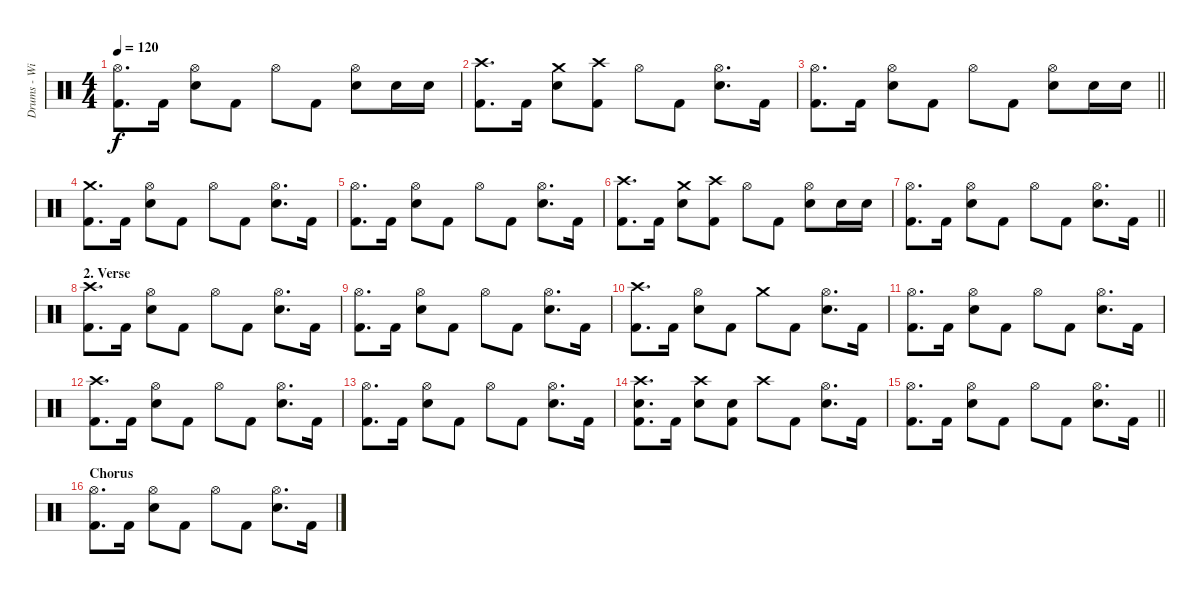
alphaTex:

\track ("Drums - Willi Wurm" "Drums - Wi") {instrument percussion}
\staff {score}
\articulation defaults
\ts (4 4)
\tempo 120
\clef neutral
\ks c
("Hi-Hat (open)" "Kick (hit) 2").8{d dy f} "Kick (hit) 2".16 ("Hi-Hat (open)" "Snare (hit) 2").8 "Kick (hit) 2".8 "Hi-Hat (open)".8 "Kick (hit) 2".8 ("Hi-Hat (open)" "Snare (hit) 2").8 "Snare (hit) 2".16 "Snare (hit) 2".16 |
("Crash high (hit)" "Kick (hit) 2").8{d} "Kick (hit) 2".16 ("Crash medium (hit)" "Snare (hit) 2").8 ("Crash high (hit)" "Kick (hit) 2").8 "Hi-Hat (open)".8 "Kick (hit) 2".8 ("Hi-Hat (open)" "Snare (hit) 2").8{d} "Kick (hit) 2".16 |
\barLineRight lightlight
("Hi-Hat (open)" "Kick (hit) 2").8{d} "Kick (hit) 2".16 ("Hi-Hat (open)" "Snare (hit) 2").8 "Kick (hit) 2".8 "Hi-Hat (open)".8 "Kick (hit) 2".8 ("Hi-Hat (open)" "Snare (hit) 2").8 "Snare (hit) 2".16 "Snare (hit) 2".16 |
("Crash medium (hit)" "Kick (hit) 2").8{d} "Kick (hit) 2".16 ("Hi-Hat (open)" "Snare (hit) 2").8 "Kick (hit) 2".8 "Hi-Hat (open)".8 "Kick (hit) 2".8 ("Hi-Hat (open)" "Snare (hit) 2").8{d} "Kick (hit) 2".16 |
("Hi-Hat (open)" "Kick (hit) 2").8{d} "Kick (hit) 2".16 ("Hi-Hat (open)" "Snare (hit) 2").8 "Kick (hit) 2".8 "Hi-Hat (open)".8 "Kick (hit) 2".8 ("Hi-Hat (open)" "Snare (hit) 2").8{d} "Kick (hit) 2".16 |
("Crash high (hit)" "Kick (hit) 2").8{d} "Kick (hit) 2".16 ("Crash medium (hit)" "Snare (hit) 2").8 ("Crash high (hit)" "Kick (hit) 2").8 "Hi-Hat (open)".8 "Kick (hit) 2".8 ("Hi-Hat (open)" "Snare (hit) 2").8 "Snare (hit) 2".16 "Snare (hit) 2".16 |
\barLineRight lightlight
("Hi-Hat (open)" "Kick (hit) 2").8{d} "Kick (hit) 2".16 ("Hi-Hat (open)" "Snare (hit) 2").8 "Kick (hit) 2".8 "Hi-Hat (open)".8 "Kick (hit) 2".8 ("Hi-Hat (open)" "Snare (hit) 2").8{d} "Kick (hit) 2".16 |
\section ("" "2. Verse")
("Crash high (hit)" "Kick (hit) 2").8{d} "Kick (hit) 2".16 ("Hi-Hat (open)" "Snare (hit) 2").8 "Kick (hit) 2".8 "Hi-Hat (open)".8 "Kick (hit) 2".8 ("Hi-Hat (open)" "Snare (hit) 2").8{d} "Kick (hit) 2".16 |
("Hi-Hat (open)" "Kick (hit) 2").8{d} "Kick (hit) 2".16 ("Hi-Hat (open)" "Snare (hit) 2").8 "Kick (hit) 2".8 "Hi-Hat (open)".8 "Kick (hit) 2".8 ("Hi-Hat (open)" "Snare (hit) 2").8{d} "Kick (hit) 2".16 |
("Crash high (hit)" "Kick (hit) 2").8{d} "Kick (hit) 2".16 ("Hi-Hat (open)" "Snare (hit) 2").8 "Kick (hit) 2".8 "Crash medium (hit)".8 "Kick (hit) 2".8 ("Hi-Hat (open)" "Snare (hit) 2").8{d} "Kick (hit) 2".16 |
("Hi-Hat (open)" "Kick (hit) 2").8{d} "Kick (hit) 2".16 ("Hi-Hat (open)" "Snare (hit) 2").8 "Kick (hit) 2".8 "Hi-Hat (open)".8 "Kick (hit) 2".8 ("Hi-Hat (open)" "Snare (hit) 2").8{d} "Kick (hit) 2".16 |
("Crash high (hit)" "Kick (hit) 2").8{d} "Kick (hit) 2".16 ("Hi-Hat (open)" "Snare (hit) 2").8 "Kick (hit) 2".8 "Hi-Hat (open)".8 "Kick (hit) 2".8 ("Hi-Hat (open)" "Snare (hit) 2").8{d} "Kick (hit) 2".16 |
("Hi-Hat (open)" "Kick (hit) 2").8{d} "Kick (hit) 2".16 ("Hi-Hat (open)" "Snare (hit) 2").8 "Kick (hit) 2".8 "Hi-Hat (open)".8 "Kick (hit) 2".8 ("Hi-Hat (open)" "Snare (hit) 2").8{d} "Kick (hit) 2".16 |
("Crash high (hit)" "Snare (hit) 2" "Kick (hit) 2").8{d} "Kick (hit) 2".16 ("Crash high (hit)" "Snare (hit) 2").8 ("Snare (hit) 2" "Kick (hit) 2").8 "Crash high (hit)".8 "Kick (hit) 2".8 ("Hi-Hat (open)" "Snare (hit) 2").8{d} "Kick (hit) 2".16 |
\barLineRight lightlight
("Hi-Hat (open)" "Kick (hit) 2").8{d} "Kick (hit) 2".16 ("Hi-Hat (open)" "Snare (hit) 2").8 "Kick (hit) 2".8 "Hi-Hat (open)".8 "Kick (hit) 2".8 ("Hi-Hat (open)" "Snare (hit) 2").8{d} "Kick (hit) 2".16 |
\section ("" "Chorus")
("Hi-Hat (open)" "Kick (hit) 2").8{d} "Kick (hit) 2".16 ("Hi-Hat (open)" "Snare (hit) 2").8 "Kick (hit) 2".8 "Hi-Hat (open)".8 "Kick (hit) 2".8 ("Hi-Hat (open)" "Snare (hit) 2").8{d} "Kick (hit) 2".16
